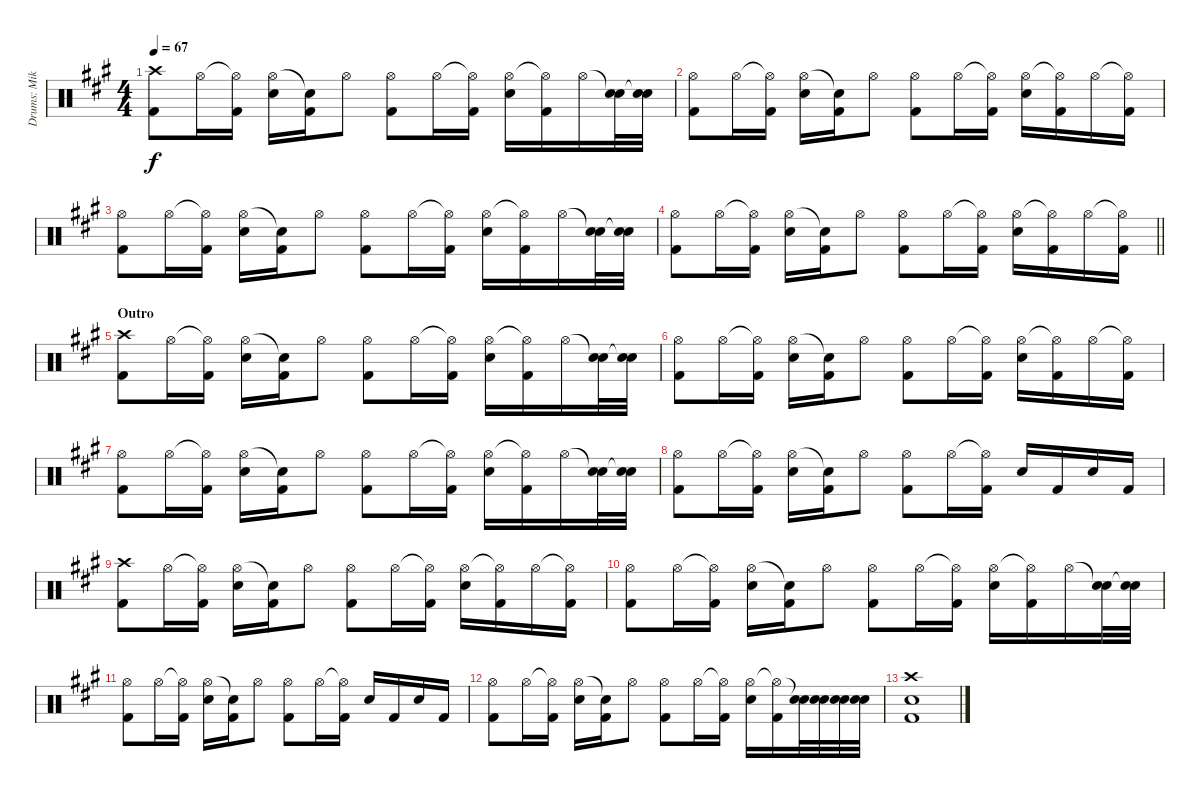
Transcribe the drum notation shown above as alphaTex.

\track ("Drums: Mike" "Drums: Mik") {instrument percussion}
\staff {score}
\articulation defaults
\ts (4 4)
\tempo 67
\clef neutral
\ks a
("Crash high (hit)" "Kick (hit) 2").8{dy f} "Hi-Hat (open)".16 ("Hi-Hat (open)"{t} "Kick (hit) 2").16 ("Hi-Hat (open)" "Electric Snare (hit)").16 ("Snare (hit)"{t} "Kick (hit) 2").16 "Hi-Hat (open)".8 ("Hi-Hat (open)" "Kick (hit) 2").8 "Hi-Hat (open)".16 ("Hi-Hat (open)"{t} "Kick (hit) 2").16 ("Hi-Hat (open)" "Electric Snare (hit)").16 ("Hi-Hat (open)"{t} "Kick (hit) 2").16 "Hi-Hat (open)".16 ("Snare (hit)"{t} "Electric Snare (hit)").32 ("Snare (hit)"{t} "Electric Snare (hit)").32 |
("Hi-Hat (open)" "Kick (hit) 2").8 "Hi-Hat (open)".16 ("Hi-Hat (open)"{t} "Kick (hit) 2").16 ("Hi-Hat (open)" "Electric Snare (hit)").16 ("Snare (hit)"{t} "Kick (hit) 2").16 "Hi-Hat (open)".8 ("Hi-Hat (open)" "Kick (hit) 2").8 "Hi-Hat (open)".16 ("Hi-Hat (open)"{t} "Kick (hit) 2").16 ("Hi-Hat (open)" "Electric Snare (hit)").16 ("Hi-Hat (open)"{t} "Kick (hit) 2").16 "Hi-Hat (open)".16 ("Hi-Hat (open)"{t} "Kick (hit) 2").16 |
("Hi-Hat (open)" "Kick (hit) 2").8 "Hi-Hat (open)".16 ("Hi-Hat (open)"{t} "Kick (hit) 2").16 ("Hi-Hat (open)" "Electric Snare (hit)").16 ("Snare (hit)"{t} "Kick (hit) 2").16 "Hi-Hat (open)".8 ("Hi-Hat (open)" "Kick (hit) 2").8 "Hi-Hat (open)".16 ("Hi-Hat (open)"{t} "Kick (hit) 2").16 ("Hi-Hat (open)" "Electric Snare (hit)").16 ("Hi-Hat (open)"{t} "Kick (hit) 2").16 "Hi-Hat (open)".16 ("Snare (hit)"{t} "Electric Snare (hit)").32 ("Snare (hit)"{t} "Electric Snare (hit)").32 |
\barLineRight lightlight
("Hi-Hat (open)" "Kick (hit) 2").8 "Hi-Hat (open)".16 ("Hi-Hat (open)"{t} "Kick (hit) 2").16 ("Hi-Hat (open)" "Electric Snare (hit)").16 ("Snare (hit)"{t} "Kick (hit) 2").16 "Hi-Hat (open)".8 ("Hi-Hat (open)" "Kick (hit) 2").8 "Hi-Hat (open)".16 ("Hi-Hat (open)"{t} "Kick (hit) 2").16 ("Hi-Hat (open)" "Electric Snare (hit)").16 ("Hi-Hat (open)"{t} "Kick (hit) 2").16 "Hi-Hat (open)".16 ("Hi-Hat (open)"{t} "Kick (hit) 2").16 |
\section ("" "Outro")
("Crash high (hit)" "Kick (hit) 2").8 "Hi-Hat (open)".16 ("Hi-Hat (open)"{t} "Kick (hit) 2").16 ("Hi-Hat (open)" "Electric Snare (hit)").16 ("Snare (hit)"{t} "Kick (hit) 2").16 "Hi-Hat (open)".8 ("Hi-Hat (open)" "Kick (hit) 2").8 "Hi-Hat (open)".16 ("Hi-Hat (open)"{t} "Kick (hit) 2").16 ("Hi-Hat (open)" "Electric Snare (hit)").16 ("Hi-Hat (open)"{t} "Kick (hit) 2").16 "Hi-Hat (open)".16 ("Snare (hit)"{t} "Electric Snare (hit)").32 ("Snare (hit)"{t} "Electric Snare (hit)").32 |
("Hi-Hat (open)" "Kick (hit) 2").8 "Hi-Hat (open)".16 ("Hi-Hat (open)"{t} "Kick (hit) 2").16 ("Hi-Hat (open)" "Electric Snare (hit)").16 ("Snare (hit)"{t} "Kick (hit) 2").16 "Hi-Hat (open)".8 ("Hi-Hat (open)" "Kick (hit) 2").8 "Hi-Hat (open)".16 ("Hi-Hat (open)"{t} "Kick (hit) 2").16 ("Hi-Hat (open)" "Electric Snare (hit)").16 ("Hi-Hat (open)"{t} "Kick (hit) 2").16 "Hi-Hat (open)".16 ("Hi-Hat (open)"{t} "Kick (hit) 2").16 |
("Hi-Hat (open)" "Kick (hit) 2").8 "Hi-Hat (open)".16 ("Hi-Hat (open)"{t} "Kick (hit) 2").16 ("Hi-Hat (open)" "Electric Snare (hit)").16 ("Snare (hit)"{t} "Kick (hit) 2").16 "Hi-Hat (open)".8 ("Hi-Hat (open)" "Kick (hit) 2").8 "Hi-Hat (open)".16 ("Hi-Hat (open)"{t} "Kick (hit) 2").16 ("Hi-Hat (open)" "Electric Snare (hit)").16 ("Hi-Hat (open)"{t} "Kick (hit) 2").16 "Hi-Hat (open)".16 ("Snare (hit)"{t} "Electric Snare (hit)").32 ("Snare (hit)"{t} "Electric Snare (hit)").32 |
("Hi-Hat (open)" "Kick (hit) 2").8 "Hi-Hat (open)".16 ("Hi-Hat (open)"{t} "Kick (hit) 2").16 ("Hi-Hat (open)" "Electric Snare (hit)").16 ("Snare (hit)"{t} "Kick (hit) 2").16 "Hi-Hat (open)".8 ("Hi-Hat (open)" "Kick (hit) 2").8 "Hi-Hat (open)".16 ("Hi-Hat (open)"{t} "Kick (hit) 2").16 "Electric Snare (hit)".16 "Kick (hit) 2".16 "Electric Snare (hit)".16 "Kick (hit) 2".16 |
("Crash high (hit)" "Kick (hit) 2").8 "Hi-Hat (open)".16 ("Hi-Hat (open)"{t} "Kick (hit) 2").16 ("Hi-Hat (open)" "Electric Snare (hit)").16 ("Snare (hit)"{t} "Kick (hit) 2").16 "Hi-Hat (open)".8 ("Hi-Hat (open)" "Kick (hit) 2").8 "Hi-Hat (open)".16 ("Hi-Hat (open)"{t} "Kick (hit) 2").16 ("Hi-Hat (open)" "Electric Snare (hit)").16 ("Hi-Hat (open)"{t} "Kick (hit) 2").16 "Hi-Hat (open)".16 ("Hi-Hat (open)"{t} "Kick (hit) 2").16 |
("Hi-Hat (open)" "Kick (hit) 2").8 "Hi-Hat (open)".16 ("Hi-Hat (open)"{t} "Kick (hit) 2").16 ("Hi-Hat (open)" "Electric Snare (hit)").16 ("Snare (hit)"{t} "Kick (hit) 2").16 "Hi-Hat (open)".8 ("Hi-Hat (open)" "Kick (hit) 2").8 "Hi-Hat (open)".16 ("Hi-Hat (open)"{t} "Kick (hit) 2").16 ("Hi-Hat (open)" "Electric Snare (hit)").16 ("Hi-Hat (open)"{t} "Kick (hit) 2").16 "Hi-Hat (open)".16 ("Snare (hit)"{t} "Electric Snare (hit)").32 ("Snare (hit)"{t} "Electric Snare (hit)").32 |
("Hi-Hat (open)" "Kick (hit) 2").8 "Hi-Hat (open)".16 ("Hi-Hat (open)"{t} "Kick (hit) 2").16 ("Hi-Hat (open)" "Electric Snare (hit)").16 ("Snare (hit)"{t} "Kick (hit) 2").16 "Hi-Hat (open)".8 ("Hi-Hat (open)" "Kick (hit) 2").8 "Hi-Hat (open)".16 ("Hi-Hat (open)"{t} "Kick (hit) 2").16 "Electric Snare (hit)".16 "Kick (hit) 2".16 "Electric Snare (hit)".16 "Kick (hit) 2".16 |
("Hi-Hat (open)" "Kick (hit) 2").8 "Hi-Hat (open)".16 ("Hi-Hat (open)"{t} "Kick (hit) 2").16 ("Hi-Hat (open)" "Electric Snare (hit)").16 ("Snare (hit)"{t} "Kick (hit) 2").16 "Hi-Hat (open)".8 ("Hi-Hat (open)" "Kick (hit) 2").8 "Hi-Hat (open)".16 ("Hi-Hat (open)"{t} "Kick (hit) 2").16 ("Hi-Hat (open)" "Electric Snare (hit)").16 ("Hi-Hat (open)"{t} "Kick (hit) 2").16 ("Snare (hit)"{t} "Electric Snare (hit)").32 ("Snare (hit)"{t} "Electric Snare (hit)").32 ("Snare (hit)"{t} "Electric Snare (hit)").32 ("Snare (hit)"{t} "Electric Snare (hit)").32 |
("Crash high (hit)" "Electric Snare (hit)" "Kick (hit) 2").1
